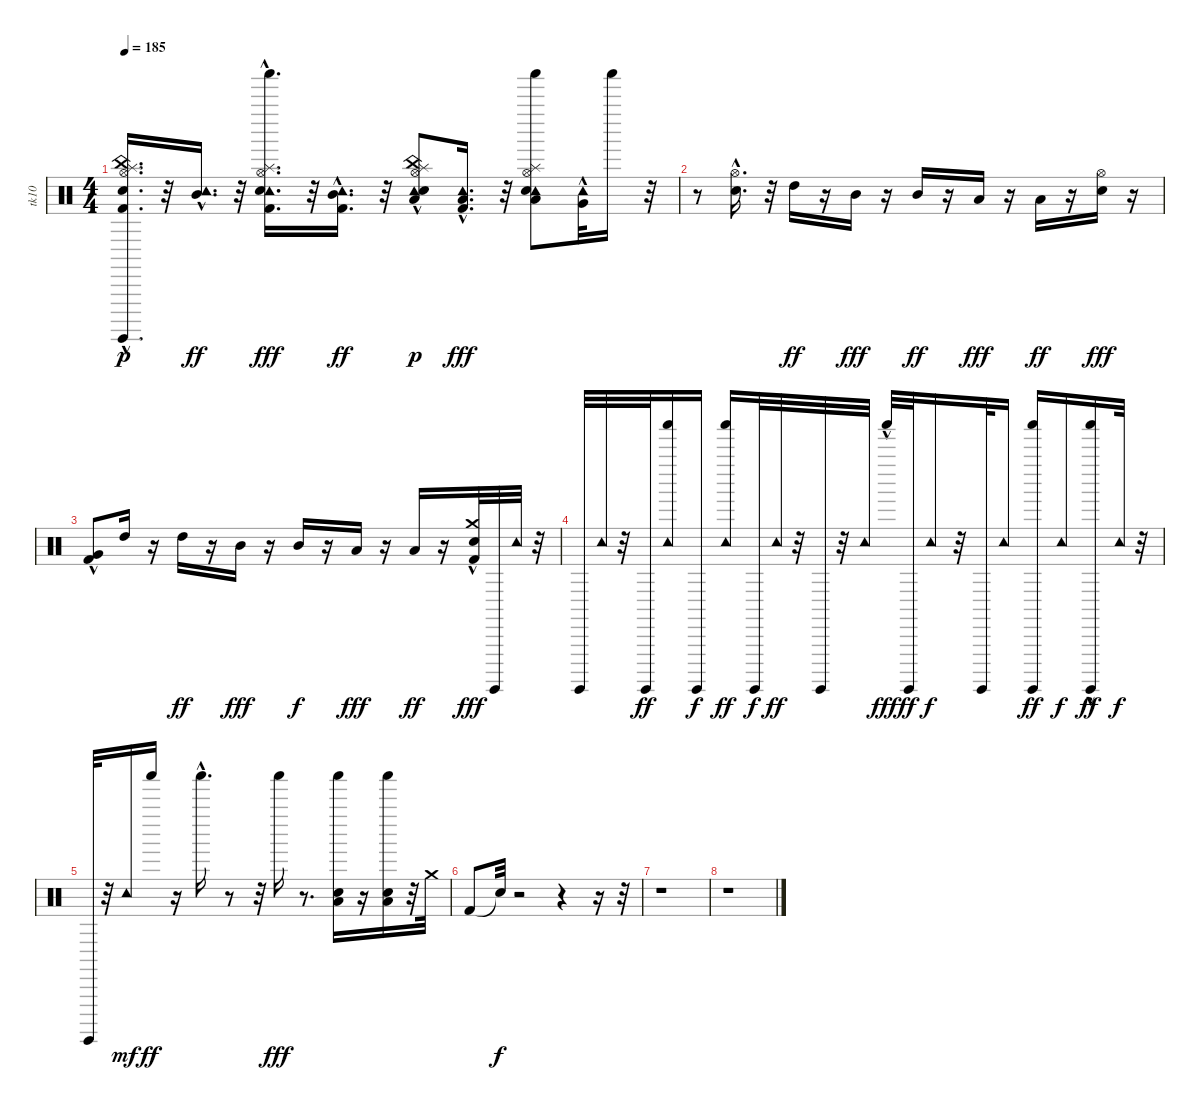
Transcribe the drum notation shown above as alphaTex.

\track ("tk10" "tk10") {instrument percussion}
\staff {score}
\articulation defaults
\ts (4 4)
\tempo 185
\clef neutral
\ks c
("Kick (hit) 2"{hac} "Electric Snare (hit)" "Hi-Hat (open)" "Splash (hit)"{hac} "China (hit)" "Surdo (hit)").16{d dy p} r.32 ("Mid Tom (hit)" "Tambourine (hit)"{hac}).16{d dy ff} r.32 ("Tambourine (hit)"{hac} "Shaker (hit)" "Kick (hit) 2" "Electric Snare (hit)" "Hi-Hat (open)" "Splash (hit)").16{d dy fff} r.32 ("Tambourine (hit)"{hac} "Mid Tom (hit)"{hac} "Kick (hit) 2"{hac}).16{d dy ff} r.32 ("Tambourine (hit)"{hac} "Electric Snare (hit)" "Hi-Hat (open)" "Splash (hit)" "Low Tom (hit)" "China (hit)").8{dy p} ("Tambourine (hit)" "Kick (hit) 2"{hac} "Low Tom (hit)").16{d dy fff} r.32 ("Tambourine (hit)" "Shaker (hit)" "Electric Snare (hit)" "Hi-Hat (open)" "Splash (hit)" "Low Tom (hit)").8 ("Tambourine (hit)" "Very Low Tom (hit)"{hac}).32 "Shaker (hit)".16 r.32 |
r.8 ("Electric Snare (hit)"{hac} "Hi-Hat (open)").16{d} r.32 "High Tom (hit)".16{dy ff} r.16 "Mid Tom (hit)".16{dy fff} r.16 "Mid Tom (hit)".16{dy ff} r.16 "Low Tom (hit)".16{dy fff} r.16 "Low Tom (hit)".16{dy ff} r.16 ("Electric Snare (hit)" "Hi-Hat (open)").16{dy fff} r.16 |
("Kick (hit) 2"{hac} "Very Low Tom (hit)").8 "High Tom (hit)".16 r.16 "High Tom (hit)".16{dy ff} r.16 "Mid Tom (hit)".16{dy fff} r.16 "Mid Tom (hit)".16{dy f} r.16 "Low Tom (hit)".16{dy fff} r.16 "Low Tom (hit)".16{dy ff} r.16 ("Electric Snare (hit)" "Crash medium (hit)"{hac} "Kick (hit) 2").32{dy fff} "Surdo (hit)".32 "Tambourine (hit)".32 r.32 |
"Surdo (hit)".32 "Tambourine (hit)".32 r.32 "Surdo (hit)".32{dy ff} ("Shaker (hit)" "Tambourine (hit)").16 "Surdo (hit)".16{dy f} ("Tambourine (hit)" "Shaker (hit)").16{dy ff} "Surdo (hit)".32{dy f} "Tambourine (hit)".32{dy ff} r.32 "Surdo (hit)".32 r.32 "Tambourine (hit)".32 "Shaker (hit)"{hac}.32{dy fff} "Surdo (hit)".32{dy ff} "Tambourine (hit)".16{dy f} r.32 "Surdo (hit)".32 "Tambourine (hit)".16 ("Shaker (hit)" "Surdo (hit)").16{dy ff} "Tambourine (hit)".16{dy f} ("Shaker (hit)"{hac} "Surdo (hit)").16{dy ff} "Tambourine (hit)".32{dy f} r.32 |
"Surdo (hit)".32 r.32 "Tambourine (hit)".16{dy mf} "Shaker (hit)".16{dy ff} r.16 "Shaker (hit)"{hac}.16{d} r.8 r.32 "Shaker (hit)".16{dy fff} r.8{d} ("Low Tom (hit)" "Electric Snare (hit)" "Shaker (hit)").16 r.16 ("Electric Snare (hit)" "Shaker (hit)" "Low Floor Tom (hit)").16 r.32 "Crash medium (hit)".32 |
"Kick (hit) 2".8 "Snare (hit)"{t}.32{dy f} r.2 r.4 r.16 r.32 |
r.1 |
r.1
